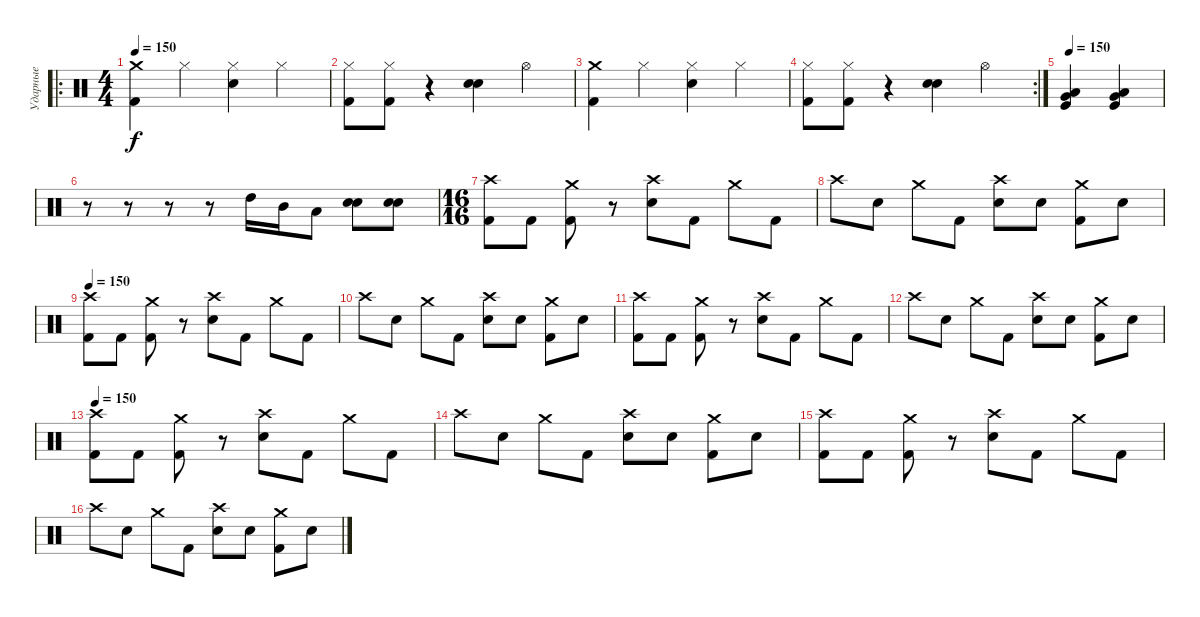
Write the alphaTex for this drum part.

\track ("Ударные" "Ударные") {instrument percussion}
\staff {score}
\articulation defaults
\ro
\ts (4 4)
\tempo 150
\clef neutral
\ks c
("Crash medium (hit)" "Kick (hit) 2").4{dy f} "Hi-Hat (closed)".4 ("Hi-Hat (closed)" "Electric Snare (hit)").4 "Hi-Hat (closed)".4 |
("Hi-Hat (closed)" "Kick (hit) 2").8 ("Hi-Hat (closed)" "Kick (hit) 2").8 r.4 ("Snare (hit) 2" "Electric Snare (hit)").4 "Hi-Hat (open)".4 |
("Crash medium (hit)" "Kick (hit) 2").4 "Hi-Hat (closed)".4 ("Hi-Hat (closed)" "Electric Snare (hit)").4 "Hi-Hat (closed)".4 |
\rc 2
("Hi-Hat (closed)" "Kick (hit) 2").8 ("Hi-Hat (closed)" "Kick (hit) 2").8 r.4 ("Snare (hit) 2" "Electric Snare (hit)").4 "Hi-Hat (open)".4 |
\tempo 150
("Kick (hit)" "Very Low Tom (hit)" "Low Floor Tom (hit)").4 ("Kick (hit)" "Very Low Tom (hit)" "Low Floor Tom (hit)").4 |
r.8 r.8 r.8 r.8 "High Tom (hit)".16 "Mid Tom (hit)".16 "Low Tom (hit)".8 ("Electric Snare (hit)" "Snare (hit) 2").8 ("Electric Snare (hit)" "Snare (hit) 2").8 |
\ts (16 16)
("Crash high (hit)" "Kick (hit) 2").8 "Kick (hit) 2".8 ("Crash medium (hit)" "Kick (hit) 2").8 r.8 ("Crash high (hit)" "Electric Snare (hit)").8 "Kick (hit) 2".8 "Crash medium (hit)".8 "Kick (hit) 2".8 |
"Crash high (hit)".8 "Snare (hit) 2".8 "Crash medium (hit)".8 "Kick (hit) 2".8 ("Crash high (hit)" "Electric Snare (hit)").8 "Snare (hit) 2".8 ("Crash medium (hit)" "Kick (hit) 2").8 "Electric Snare (hit)".8 |
\tempo 150
("Crash high (hit)" "Kick (hit) 2").8 "Kick (hit) 2".8 ("Crash medium (hit)" "Kick (hit) 2").8 r.8 ("Crash high (hit)" "Electric Snare (hit)").8 "Kick (hit) 2".8 "Crash medium (hit)".8 "Kick (hit) 2".8 |
"Crash high (hit)".8 "Snare (hit) 2".8 "Crash medium (hit)".8 "Kick (hit) 2".8 ("Crash high (hit)" "Electric Snare (hit)").8 "Snare (hit) 2".8 ("Crash medium (hit)" "Kick (hit) 2").8 "Electric Snare (hit)".8 |
("Crash high (hit)" "Kick (hit) 2").8 "Kick (hit) 2".8 ("Crash medium (hit)" "Kick (hit) 2").8 r.8 ("Crash high (hit)" "Electric Snare (hit)").8 "Kick (hit) 2".8 "Crash medium (hit)".8 "Kick (hit) 2".8 |
"Crash high (hit)".8 "Snare (hit) 2".8 "Crash medium (hit)".8 "Kick (hit) 2".8 ("Crash high (hit)" "Electric Snare (hit)").8 "Snare (hit) 2".8 ("Crash medium (hit)" "Kick (hit) 2").8 "Electric Snare (hit)".8 |
\tempo 150
("Crash high (hit)" "Kick (hit) 2").8 "Kick (hit) 2".8 ("Crash medium (hit)" "Kick (hit) 2").8 r.8 ("Crash high (hit)" "Electric Snare (hit)").8 "Kick (hit) 2".8 "Crash medium (hit)".8 "Kick (hit) 2".8 |
"Crash high (hit)".8 "Snare (hit) 2".8 "Crash medium (hit)".8 "Kick (hit) 2".8 ("Crash high (hit)" "Electric Snare (hit)").8 "Snare (hit) 2".8 ("Crash medium (hit)" "Kick (hit) 2").8 "Electric Snare (hit)".8 |
("Crash high (hit)" "Kick (hit) 2").8 "Kick (hit) 2".8 ("Crash medium (hit)" "Kick (hit) 2").8 r.8 ("Crash high (hit)" "Electric Snare (hit)").8 "Kick (hit) 2".8 "Crash medium (hit)".8 "Kick (hit) 2".8 |
"Crash high (hit)".8 "Snare (hit) 2".8 "Crash medium (hit)".8 "Kick (hit) 2".8 ("Crash high (hit)" "Electric Snare (hit)").8 "Snare (hit) 2".8 ("Crash medium (hit)" "Kick (hit) 2").8 "Electric Snare (hit)".8
